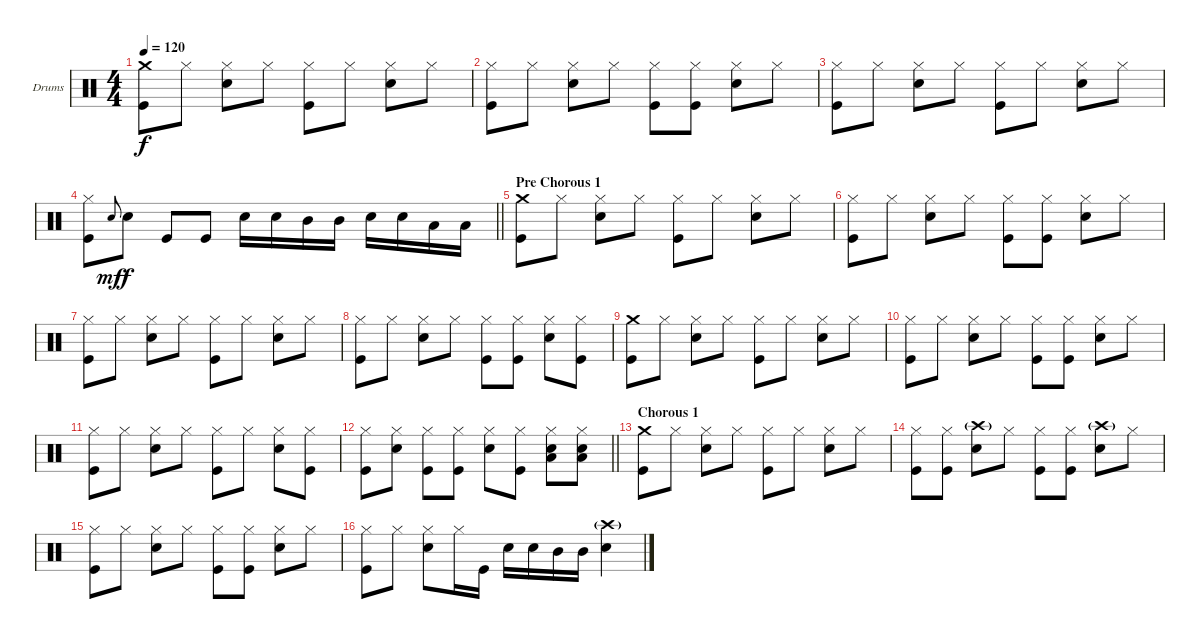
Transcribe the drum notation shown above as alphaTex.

\bracketExtendMode groupsimilarinstruments
\firstSystemTrackNameOrientation horizontal
\otherSystemsTrackNameOrientation horizontal
\track ("Drumkit" "Drums") {instrument percussion}
\staff {score}
\articulation defaults
\ts (4 4)
\tempo 120
\clef neutral
\ks c
("Crash medium (hit)" "Kick (hit)").8{dy f} "Hi-Hat (closed)".8 ("Hi-Hat (closed)" "Snare (hit) 2").8 "Hi-Hat (closed)".8 ("Hi-Hat (closed)" "Kick (hit)").8 "Hi-Hat (closed)".8 ("Hi-Hat (closed)" "Snare (hit) 2").8 "Hi-Hat (closed)".8 |
("Hi-Hat (closed)" "Kick (hit)").8 "Hi-Hat (closed)".8 ("Hi-Hat (closed)" "Snare (hit) 2").8 "Hi-Hat (closed)".8 ("Hi-Hat (closed)" "Kick (hit)").8 ("Hi-Hat (closed)" "Kick (hit)").8 ("Hi-Hat (closed)" "Snare (hit) 2").8 "Hi-Hat (closed)".8 |
("Hi-Hat (closed)" "Kick (hit)").8 "Hi-Hat (closed)".8 ("Hi-Hat (closed)" "Snare (hit) 2").8 "Hi-Hat (closed)".8 ("Hi-Hat (closed)" "Kick (hit)").8 "Hi-Hat (closed)".8 ("Hi-Hat (closed)" "Snare (hit) 2").8 "Hi-Hat (closed)".8 |
\barLineRight lightlight
("Hi-Hat (closed)" "Kick (hit)").8 "Snare (hit) 2".8{gr onbeat dy mf} "Snare (hit) 2".8{dy f} "Kick (hit)".8 "Kick (hit)".8 "Snare (hit) 2".16 "Snare (hit) 2".16 "Mid Tom (hit)".16 "Mid Tom (hit)".16 "Snare (hit) 2".16 "Snare (hit) 2".16 "Low Tom (hit)".16 "Low Tom (hit)".16 |
\section ("" "Pre Chorous 1")
("Crash medium (hit)" "Kick (hit)").8 "Hi-Hat (closed)".8 ("Hi-Hat (closed)" "Snare (hit) 2").8 "Hi-Hat (closed)".8 ("Hi-Hat (closed)" "Kick (hit)").8 "Hi-Hat (closed)".8 ("Hi-Hat (closed)" "Snare (hit) 2").8 "Hi-Hat (closed)".8 |
("Hi-Hat (closed)" "Kick (hit)").8 "Hi-Hat (closed)".8 ("Hi-Hat (closed)" "Snare (hit) 2").8 "Hi-Hat (closed)".8 ("Hi-Hat (closed)" "Kick (hit)").8 ("Hi-Hat (closed)" "Kick (hit)").8 ("Hi-Hat (closed)" "Snare (hit) 2").8 "Hi-Hat (closed)".8 |
("Hi-Hat (closed)" "Kick (hit)").8 "Hi-Hat (closed)".8 ("Hi-Hat (closed)" "Snare (hit) 2").8 "Hi-Hat (closed)".8 ("Hi-Hat (closed)" "Kick (hit)").8 "Hi-Hat (closed)".8 ("Hi-Hat (closed)" "Snare (hit) 2").8 "Hi-Hat (closed)".8 |
("Hi-Hat (closed)" "Kick (hit)").8 "Hi-Hat (closed)".8 ("Hi-Hat (closed)" "Snare (hit) 2").8 "Hi-Hat (closed)".8 ("Hi-Hat (closed)" "Kick (hit)").8 ("Hi-Hat (closed)" "Kick (hit)").8 ("Hi-Hat (closed)" "Snare (hit) 2").8 ("Hi-Hat (closed)" "Kick (hit)").8 |
("Crash medium (hit)" "Kick (hit)").8 "Hi-Hat (closed)".8 ("Hi-Hat (closed)" "Snare (hit) 2").8 "Hi-Hat (closed)".8 ("Hi-Hat (closed)" "Kick (hit)").8 "Hi-Hat (closed)".8 ("Hi-Hat (closed)" "Snare (hit) 2").8 "Hi-Hat (closed)".8 |
("Hi-Hat (closed)" "Kick (hit)").8 "Hi-Hat (closed)".8 ("Hi-Hat (closed)" "Snare (hit) 2").8 "Hi-Hat (closed)".8 ("Hi-Hat (closed)" "Kick (hit)").8 ("Hi-Hat (closed)" "Kick (hit)").8 ("Hi-Hat (closed)" "Snare (hit) 2").8 "Hi-Hat (closed)".8 |
("Hi-Hat (closed)" "Kick (hit)").8 "Hi-Hat (closed)".8 ("Hi-Hat (closed)" "Snare (hit) 2").8 "Hi-Hat (closed)".8 ("Hi-Hat (closed)" "Kick (hit)").8 "Hi-Hat (closed)".8 ("Hi-Hat (closed)" "Snare (hit) 2").8 ("Hi-Hat (closed)" "Kick (hit)").8 |
\barLineRight lightlight
("Hi-Hat (closed)" "Kick (hit)").8 ("Hi-Hat (closed)" "Snare (hit) 2").8 ("Hi-Hat (closed)" "Kick (hit)").8 ("Hi-Hat (closed)" "Kick (hit)").8 ("Hi-Hat (closed)" "Snare (hit) 2").8 ("Hi-Hat (closed)" "Kick (hit)").8 ("Hi-Hat (closed)" "Snare (hit) 2" "Low Tom (hit)").8 ("Hi-Hat (closed)" "Snare (hit) 2" "Low Tom (hit)").8 |
\section ("" "Chorous 1")
("Crash medium (hit)" "Kick (hit)").8 "Hi-Hat (closed)".8 ("Hi-Hat (closed)" "Snare (hit) 2").8 "Hi-Hat (closed)".8 ("Hi-Hat (closed)" "Kick (hit)").8 "Hi-Hat (closed)".8 ("Hi-Hat (closed)" "Snare (hit) 2").8 "Hi-Hat (closed)".8 |
("Hi-Hat (closed)" "Kick (hit)").8 ("Hi-Hat (closed)" "Kick (hit)").8 ("Crash high (hit)"{g} "Snare (hit) 2").8 "Hi-Hat (closed)".8 ("Hi-Hat (closed)" "Kick (hit)").8 ("Hi-Hat (closed)" "Kick (hit)").8 ("Crash high (hit)"{g} "Snare (hit) 2").8 "Hi-Hat (closed)".8 |
("Hi-Hat (closed)" "Kick (hit)").8 "Hi-Hat (closed)".8 ("Hi-Hat (closed)" "Snare (hit) 2").8 "Hi-Hat (closed)".8 ("Hi-Hat (closed)" "Kick (hit)").8 ("Hi-Hat (closed)" "Kick (hit)").8 ("Hi-Hat (closed)" "Snare (hit) 2").8 "Hi-Hat (closed)".8 |
("Hi-Hat (closed)" "Kick (hit)").8 "Hi-Hat (closed)".8 ("Hi-Hat (closed)" "Snare (hit) 2").8 "Hi-Hat (closed)".16 "Kick (hit)".16 "Snare (hit) 2".16 "Snare (hit) 2".16 "Mid Tom (hit)".16 "Mid Tom (hit)".16 ("Crash high (hit)"{g} "Snare (hit) 2").4
